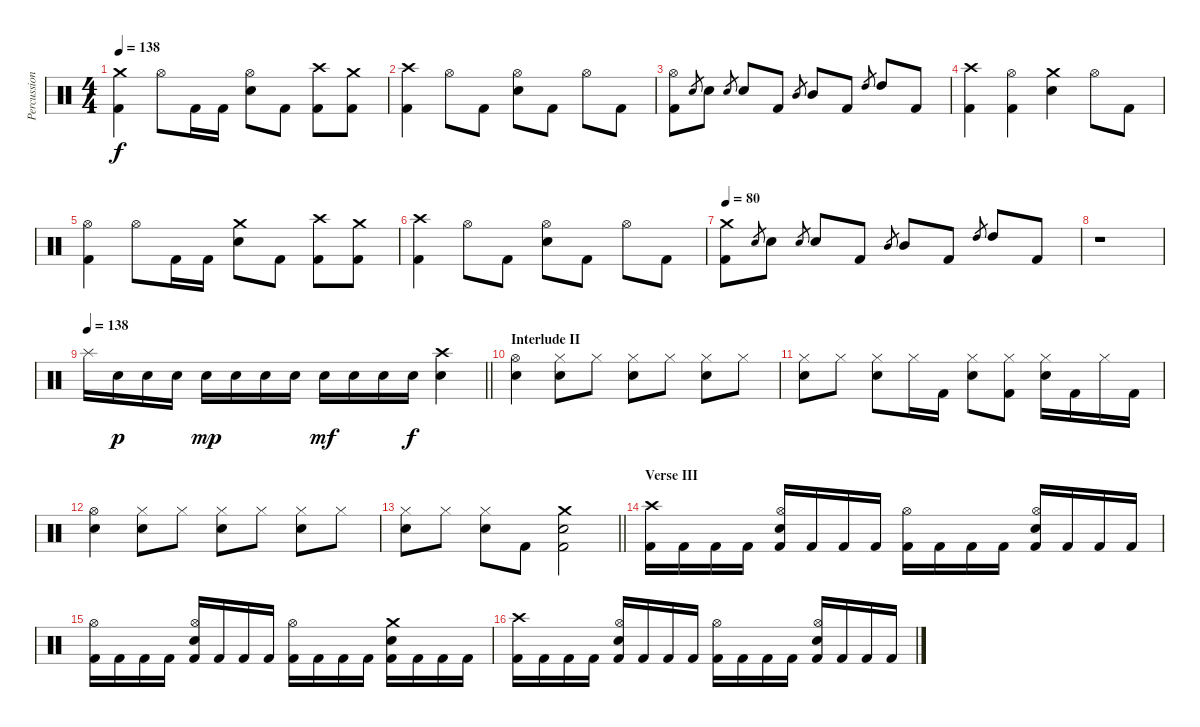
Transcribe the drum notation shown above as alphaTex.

\track ("Percussion" "Percussion") {instrument percussion}
\staff {score}
\articulation defaults
\ts (4 4)
\tempo 138
\clef neutral
\ks c
("Crash medium (hit)" "Kick (hit) 2").4{dy f} "Hi-Hat (open)".8 "Kick (hit) 2".16 "Kick (hit) 2".16 ("Hi-Hat (open)" "Electric Snare (hit)").8 "Kick (hit) 2".8 ("Crash high (hit)" "Kick (hit) 2").8 ("Crash medium (hit)" "Kick (hit) 2").8 |
("Crash high (hit)" "Kick (hit) 2").4 "Hi-Hat (open)".8 "Kick (hit) 2".8 ("Hi-Hat (open)" "Electric Snare (hit)").8 "Kick (hit) 2".8 "Hi-Hat (open)".8 "Kick (hit) 2".8 |
("Hi-Hat (open)" "Kick (hit) 2").8 "Electric Snare (hit)".8{gr} "Electric Snare (hit)".8 "Electric Snare (hit)".8{gr} "Electric Snare (hit)".8 "Kick (hit) 2".8 "Mid Tom (hit)".8{gr} "Mid Tom (hit)".8 "Kick (hit) 2".8 "High Tom (hit)".8{gr} "High Tom (hit)".8 "Kick (hit) 2".8 |
("Crash high (hit)" "Kick (hit) 2").4 ("Hi-Hat (open)" "Kick (hit) 2").4 ("Crash medium (hit)" "Electric Snare (hit)").4 "Hi-Hat (open)".8 "Kick (hit) 2".8 |
("Hi-Hat (open)" "Kick (hit) 2").4 "Hi-Hat (open)".8 "Kick (hit) 2".16 "Kick (hit) 2".16 ("Crash medium (hit)" "Electric Snare (hit)").8 "Kick (hit) 2".8 ("Crash high (hit)" "Kick (hit) 2").8 ("Crash medium (hit)" "Kick (hit) 2").8 |
("Crash high (hit)" "Kick (hit) 2").4 "Hi-Hat (open)".8 "Kick (hit) 2".8 ("Hi-Hat (open)" "Electric Snare (hit)").8 "Kick (hit) 2".8 "Hi-Hat (open)".8 "Kick (hit) 2".8 |
\tempo 80
("Crash medium (hit)" "Kick (hit) 2").8 "Electric Snare (hit)".8{gr} "Electric Snare (hit)".8 "Electric Snare (hit)".8{gr} "Electric Snare (hit)".8 "Kick (hit) 2".8 "Mid Tom (hit)".8{gr} "Mid Tom (hit)".8 "Kick (hit) 2".8 "High Tom (hit)".8{gr} "High Tom (hit)".8 "Kick (hit) 2".8 |
r.1 |
\tempo 138
\barLineRight lightlight "Splash (hit)".16 "Electric Snare (hit)".16{dy p} "Electric Snare (hit)".16 "Electric Snare (hit)".16 "Electric Snare (hit)".16{dy mp} "Electric Snare (hit)".16 "Electric Snare (hit)".16 "Electric Snare (hit)".16 "Electric Snare (hit)".16{dy mf} "Electric Snare (hit)".16 "Electric Snare (hit)".16 "Electric Snare (hit)".16{dy f}
("Crash high (hit)" "Electric Snare (hit)").4 |
\section ("" "Interlude II")
("Hi-Hat (open)" "Electric Snare (hit)").4 ("Hi-Hat (closed)" "Electric Snare (hit)").8 "Hi-Hat (closed)".8 ("Hi-Hat (closed)" "Electric Snare (hit)").8 "Hi-Hat (closed)".8 ("Hi-Hat (closed)" "Electric Snare (hit)").8 "Hi-Hat (closed)".8 |
("Hi-Hat (closed)" "Electric Snare (hit)").8 "Hi-Hat (closed)".8 ("Hi-Hat (closed)" "Electric Snare (hit)").8 "Hi-Hat (closed)".16 "Kick (hit) 2".16 ("Hi-Hat (closed)" "Electric Snare (hit)").8 ("Hi-Hat (closed)" "Kick (hit) 2").8 ("Hi-Hat (closed)" "Electric Snare (hit)").16 "Kick (hit) 2".16 "Hi-Hat (closed)".16 "Kick (hit) 2".16 |
("Hi-Hat (open)" "Electric Snare (hit)").4 ("Hi-Hat (closed)" "Electric Snare (hit)").8 "Hi-Hat (closed)".8 ("Hi-Hat (closed)" "Electric Snare (hit)").8 "Hi-Hat (closed)".8 ("Hi-Hat (closed)" "Electric Snare (hit)").8 "Hi-Hat (closed)".8 |
\barLineRight lightlight
("Hi-Hat (closed)" "Electric Snare (hit)").8 "Hi-Hat (closed)".8 ("Hi-Hat (closed)" "Electric Snare (hit)").8 "Kick (hit) 2".8 ("Crash medium (hit)" "Electric Snare (hit)" "Kick (hit) 2").2 |
\section ("" "Verse III")
("Crash high (hit)" "Kick (hit) 2").16 "Kick (hit) 2".16 "Kick (hit) 2".16 "Kick (hit) 2".16 ("Hi-Hat (open)" "Electric Snare (hit)" "Kick (hit) 2").16 "Kick (hit) 2".16 "Kick (hit) 2".16 "Kick (hit) 2".16 ("Hi-Hat (open)" "Kick (hit) 2").16 "Kick (hit) 2".16 "Kick (hit) 2".16 "Kick (hit) 2".16 ("Hi-Hat (open)" "Electric Snare (hit)" "Kick (hit) 2").16 "Kick (hit) 2".16 "Kick (hit) 2".16 "Kick (hit) 2".16 |
("Hi-Hat (open)" "Kick (hit) 2").16 "Kick (hit) 2".16 "Kick (hit) 2".16 "Kick (hit) 2".16 ("Hi-Hat (open)" "Electric Snare (hit)" "Kick (hit) 2").16 "Kick (hit) 2".16 "Kick (hit) 2".16 "Kick (hit) 2".16 ("Hi-Hat (open)" "Kick (hit) 2").16 "Kick (hit) 2".16 "Kick (hit) 2".16 "Kick (hit) 2".16 ("Crash medium (hit)" "Electric Snare (hit)" "Kick (hit) 2").16 "Kick (hit) 2".16 "Kick (hit) 2".16 "Kick (hit) 2".16 |
("Crash high (hit)" "Kick (hit) 2").16 "Kick (hit) 2".16 "Kick (hit) 2".16 "Kick (hit) 2".16 ("Hi-Hat (open)" "Electric Snare (hit)" "Kick (hit) 2").16 "Kick (hit) 2".16 "Kick (hit) 2".16 "Kick (hit) 2".16 ("Hi-Hat (open)" "Kick (hit) 2").16 "Kick (hit) 2".16 "Kick (hit) 2".16 "Kick (hit) 2".16 ("Hi-Hat (open)" "Electric Snare (hit)" "Kick (hit) 2").16 "Kick (hit) 2".16 "Kick (hit) 2".16 "Kick (hit) 2".16
